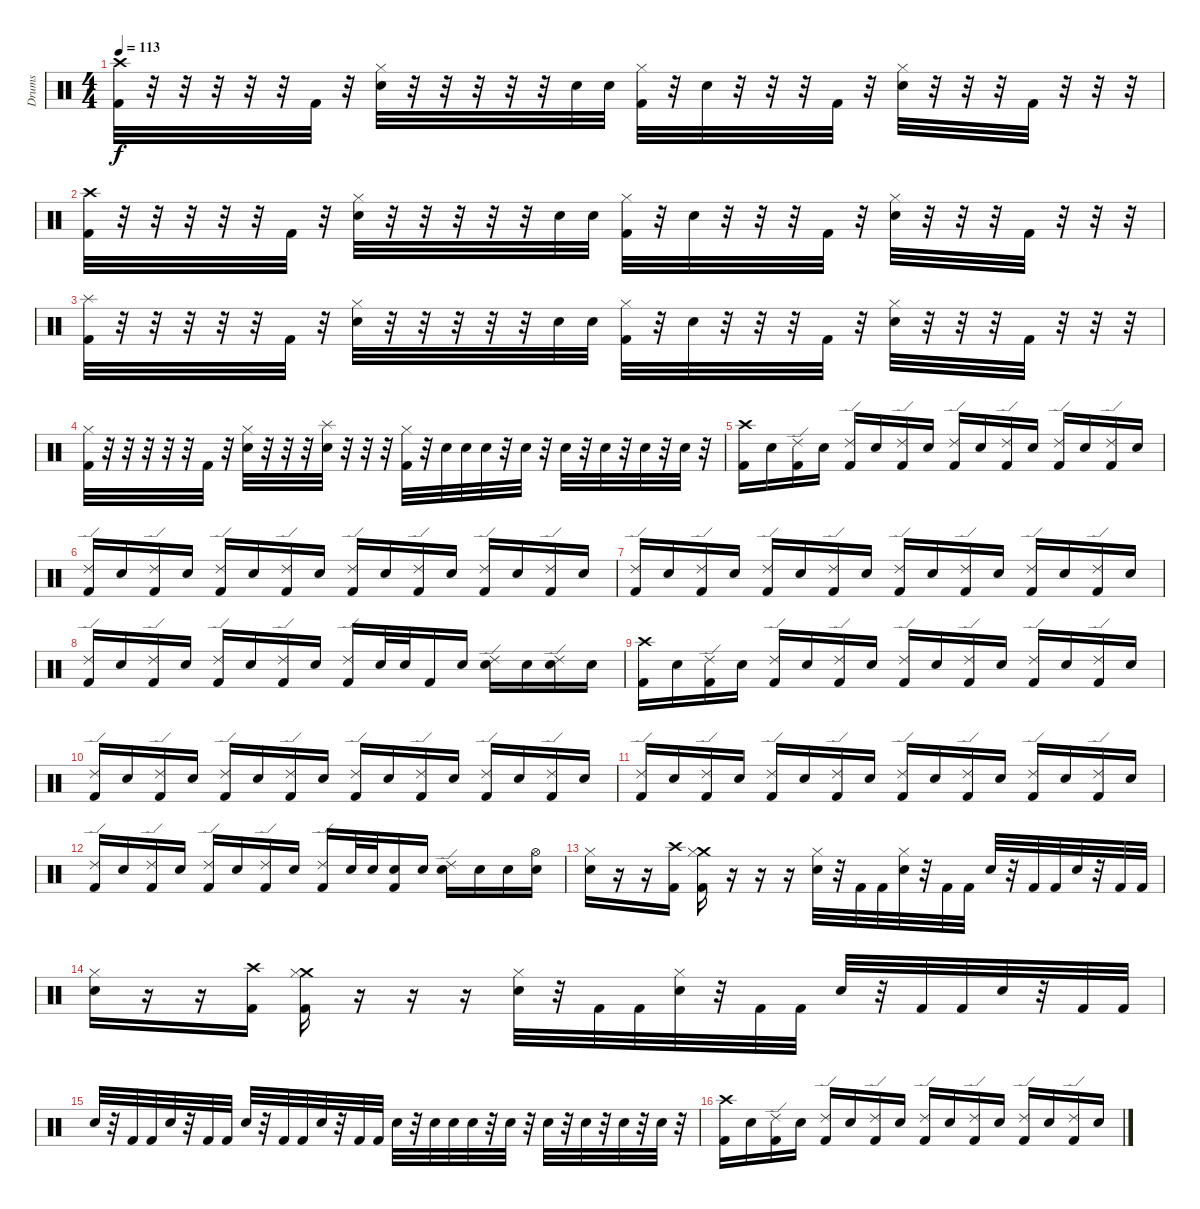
\track ("Drums" "Drums") {instrument percussion}
\staff {score}
\articulation defaults
\ts (4 4)
\tempo 113
\clef neutral
\ks c
("Kick (hit) 2" "Crash high (hit)").32{dy f} r.32 r.32 r.32 r.32 r.32 "Kick (hit) 2".32 r.32 ("Electric Snare (hit)" "Hi-Hat (closed)").32 r.32 r.32 r.32 r.32 r.32 "Electric Snare (hit)".32 "Electric Snare (hit)".32 ("Kick (hit) 2" "Hi-Hat (closed)").32 r.32 "Electric Snare (hit)".32 r.32 r.32 r.32 "Kick (hit) 2".32 r.32 ("Electric Snare (hit)" "Hi-Hat (closed)").32 r.32 r.32 r.32 "Kick (hit) 2".32 r.32 r.32 r.32 |
("Kick (hit) 2" "Crash high (hit)").32 r.32 r.32 r.32 r.32 r.32 "Kick (hit) 2".32 r.32 ("Electric Snare (hit)" "Hi-Hat (closed)").32 r.32 r.32 r.32 r.32 r.32 "Electric Snare (hit)".32 "Electric Snare (hit)".32 ("Kick (hit) 2" "Hi-Hat (closed)").32 r.32 "Electric Snare (hit)".32 r.32 r.32 r.32 "Kick (hit) 2".32 r.32 ("Electric Snare (hit)" "Hi-Hat (closed)").32 r.32 r.32 r.32 "Kick (hit) 2".32 r.32 r.32 r.32 |
("Kick (hit) 2" "Splash (hit)").32 r.32 r.32 r.32 r.32 r.32 "Kick (hit) 2".32 r.32 ("Electric Snare (hit)" "Hi-Hat (closed)").32 r.32 r.32 r.32 r.32 r.32 "Electric Snare (hit)".32 "Electric Snare (hit)".32 ("Kick (hit) 2" "Hi-Hat (closed)").32 r.32 "Electric Snare (hit)".32 r.32 r.32 r.32 "Kick (hit) 2".32 r.32 ("Electric Snare (hit)" "Hi-Hat (closed)").32 r.32 r.32 r.32 "Kick (hit) 2".32 r.32 r.32 r.32 |
("Kick (hit) 2" "Hi-Hat (closed)").32 r.32 r.32 r.32 r.32 r.32 "Kick (hit) 2".32 r.32 ("Electric Snare (hit)" "Hi-Hat (closed)").32 r.32 r.32 r.32 ("Electric Snare (hit)" "Splash (hit)").32 r.32 r.32 r.32 ("Kick (hit) 2" "Hi-Hat (closed)").32 r.32 "Electric Snare (hit)".32 "Electric Snare (hit)".32 "Electric Snare (hit)".32 r.32 "Electric Snare (hit)".32 r.32 "Electric Snare (hit)".32 r.32 "Electric Snare (hit)".32 r.32 "Electric Snare (hit)".32 r.32 "Electric Snare (hit)".32 r.32 |
("Kick (hit) 2" "Crash high (hit)").16 "Electric Snare (hit)".16 ("Kick (hit) 2" "Ride (edge) 2").16 "Electric Snare (hit)".16 ("Kick (hit) 2" "Ride (edge) 2").16 "Electric Snare (hit)".16 ("Kick (hit) 2" "Ride (edge) 2").16 "Electric Snare (hit)".16 ("Kick (hit) 2" "Ride (edge) 2").16 "Electric Snare (hit)".16 ("Kick (hit) 2" "Ride (edge) 2").16 "Electric Snare (hit)".16 ("Kick (hit) 2" "Ride (edge) 2").16 "Electric Snare (hit)".16 ("Kick (hit) 2" "Ride (edge) 2").16 "Electric Snare (hit)".16 |
("Kick (hit) 2" "Ride (edge) 2").16 "Electric Snare (hit)".16 ("Kick (hit) 2" "Ride (edge) 2").16 "Electric Snare (hit)".16 ("Kick (hit) 2" "Ride (edge) 2").16 "Electric Snare (hit)".16 ("Kick (hit) 2" "Ride (edge) 2").16 "Electric Snare (hit)".16 ("Kick (hit) 2" "Ride (edge) 2").16 "Electric Snare (hit)".16 ("Kick (hit) 2" "Ride (edge) 2").16 "Electric Snare (hit)".16 ("Kick (hit) 2" "Ride (edge) 2").16 "Electric Snare (hit)".16 ("Kick (hit) 2" "Ride (edge) 2").16 "Electric Snare (hit)".16 |
("Kick (hit) 2" "Ride (edge) 2").16 "Electric Snare (hit)".16 ("Kick (hit) 2" "Ride (edge) 2").16 "Electric Snare (hit)".16 ("Kick (hit) 2" "Ride (edge) 2").16 "Electric Snare (hit)".16 ("Kick (hit) 2" "Ride (edge) 2").16 "Electric Snare (hit)".16 ("Kick (hit) 2" "Ride (edge) 2").16 "Electric Snare (hit)".16 ("Kick (hit) 2" "Ride (edge) 2").16 "Electric Snare (hit)".16 ("Kick (hit) 2" "Ride (edge) 2").16 "Electric Snare (hit)".16 ("Kick (hit) 2" "Ride (edge) 2").16 "Electric Snare (hit)".16 |
("Kick (hit) 2" "Ride (edge) 2").16 "Electric Snare (hit)".16 ("Kick (hit) 2" "Ride (edge) 2").16 "Electric Snare (hit)".16 ("Kick (hit) 2" "Ride (edge) 2").16 "Electric Snare (hit)".16 ("Kick (hit) 2" "Ride (edge) 2").16 "Electric Snare (hit)".16 ("Kick (hit) 2" "Ride (edge) 2").16 "Electric Snare (hit)".32 "Electric Snare (hit)".32 "Kick (hit) 2".16 "Electric Snare (hit)".16 ("Electric Snare (hit)" "Ride (edge) 2").16 "Electric Snare (hit)".16 ("Electric Snare (hit)" "Ride (edge) 2").16 "Electric Snare (hit)".16 |
("Kick (hit) 2" "Crash high (hit)").16 "Electric Snare (hit)".16 ("Kick (hit) 2" "Ride (edge) 2").16 "Electric Snare (hit)".16 ("Kick (hit) 2" "Ride (edge) 2").16 "Electric Snare (hit)".16 ("Kick (hit) 2" "Ride (edge) 2").16 "Electric Snare (hit)".16 ("Kick (hit) 2" "Ride (edge) 2").16 "Electric Snare (hit)".16 ("Kick (hit) 2" "Ride (edge) 2").16 "Electric Snare (hit)".16 ("Kick (hit) 2" "Ride (edge) 2").16 "Electric Snare (hit)".16 ("Kick (hit) 2" "Ride (edge) 2").16 "Electric Snare (hit)".16 |
("Kick (hit) 2" "Ride (edge) 2").16 "Electric Snare (hit)".16 ("Kick (hit) 2" "Ride (edge) 2").16 "Electric Snare (hit)".16 ("Kick (hit) 2" "Ride (edge) 2").16 "Electric Snare (hit)".16 ("Kick (hit) 2" "Ride (edge) 2").16 "Electric Snare (hit)".16 ("Kick (hit) 2" "Ride (edge) 2").16 "Electric Snare (hit)".16 ("Kick (hit) 2" "Ride (edge) 2").16 "Electric Snare (hit)".16 ("Kick (hit) 2" "Ride (edge) 2").16 "Electric Snare (hit)".16 ("Kick (hit) 2" "Ride (edge) 2").16 "Electric Snare (hit)".16 |
("Kick (hit) 2" "Ride (edge) 2").16 "Electric Snare (hit)".16 ("Kick (hit) 2" "Ride (edge) 2").16 "Electric Snare (hit)".16 ("Kick (hit) 2" "Ride (edge) 2").16 "Electric Snare (hit)".16 ("Kick (hit) 2" "Ride (edge) 2").16 "Electric Snare (hit)".16 ("Kick (hit) 2" "Ride (edge) 2").16 "Electric Snare (hit)".16 ("Kick (hit) 2" "Ride (edge) 2").16 "Electric Snare (hit)".16 ("Kick (hit) 2" "Ride (edge) 2").16 "Electric Snare (hit)".16 ("Kick (hit) 2" "Ride (edge) 2").16 "Electric Snare (hit)".16 |
("Kick (hit) 2" "Ride (edge) 2").16 "Electric Snare (hit)".16 ("Kick (hit) 2" "Ride (edge) 2").16 "Electric Snare (hit)".16 ("Kick (hit) 2" "Ride (edge) 2").16 "Electric Snare (hit)".16 ("Kick (hit) 2" "Ride (edge) 2").16 "Electric Snare (hit)".16 ("Kick (hit) 2" "Ride (edge) 2").16 "Electric Snare (hit)".32 "Electric Snare (hit)".32 ("Kick (hit) 2" "Electric Snare (hit)").16 "Electric Snare (hit)".16 ("Electric Snare (hit)" "Ride (edge) 2").16 "Electric Snare (hit)".16 "Electric Snare (hit)".16 ("Electric Snare (hit)" "Hi-Hat (open)").16 |
("Electric Snare (hit)" "Hi-Hat (closed)").16 r.16 r.16 ("Kick (hit) 2" "Crash high (hit)").16 ("Kick (hit) 2" "Crash medium (hit)" "Hi-Hat (closed)").16 r.16 r.16 r.16 ("Electric Snare (hit)" "Hi-Hat (closed)").32 r.32 "Kick (hit) 2".32 "Kick (hit) 2".32 ("Electric Snare (hit)" "Hi-Hat (closed)").32 r.32 "Kick (hit) 2".32 "Kick (hit) 2".32 "Electric Snare (hit)".32 r.32 "Kick (hit) 2".32 "Kick (hit) 2".32 "Electric Snare (hit)".32 r.32 "Kick (hit) 2".32 "Kick (hit) 2".32 |
("Electric Snare (hit)" "Hi-Hat (closed)").16 r.16 r.16 ("Kick (hit) 2" "Crash high (hit)").16 ("Kick (hit) 2" "Crash medium (hit)" "Hi-Hat (closed)").16 r.16 r.16 r.16 ("Electric Snare (hit)" "Hi-Hat (closed)").32 r.32 "Kick (hit) 2".32 "Kick (hit) 2".32 ("Electric Snare (hit)" "Hi-Hat (closed)").32 r.32 "Kick (hit) 2".32 "Kick (hit) 2".32 "Electric Snare (hit)".32 r.32 "Kick (hit) 2".32 "Kick (hit) 2".32 "Electric Snare (hit)".32 r.32 "Kick (hit) 2".32 "Kick (hit) 2".32 |
"Electric Snare (hit)".32 r.32 "Kick (hit) 2".32 "Kick (hit) 2".32 "Electric Snare (hit)".32 r.32 "Kick (hit) 2".32 "Kick (hit) 2".32 "Electric Snare (hit)".32 r.32 "Kick (hit) 2".32 "Kick (hit) 2".32 "Electric Snare (hit)".32 r.32 "Kick (hit) 2".32 "Kick (hit) 2".32 "Electric Snare (hit)".32 r.32 "Electric Snare (hit)".32 "Electric Snare (hit)".32 "Electric Snare (hit)".32 r.32 "Electric Snare (hit)".32 r.32 "Electric Snare (hit)".32 r.32 "Electric Snare (hit)".32 r.32 "Electric Snare (hit)".32 r.32 "Electric Snare (hit)".32 r.32 |
("Kick (hit) 2" "Crash high (hit)").16 "Electric Snare (hit)".16 ("Kick (hit) 2" "Ride (edge) 2").16 "Electric Snare (hit)".16 ("Kick (hit) 2" "Ride (edge) 2").16 "Electric Snare (hit)".16 ("Kick (hit) 2" "Ride (edge) 2").16 "Electric Snare (hit)".16 ("Kick (hit) 2" "Ride (edge) 2").16 "Electric Snare (hit)".16 ("Kick (hit) 2" "Ride (edge) 2").16 "Electric Snare (hit)".16 ("Kick (hit) 2" "Ride (edge) 2").16 "Electric Snare (hit)".16 ("Kick (hit) 2" "Ride (edge) 2").16 "Electric Snare (hit)".16
